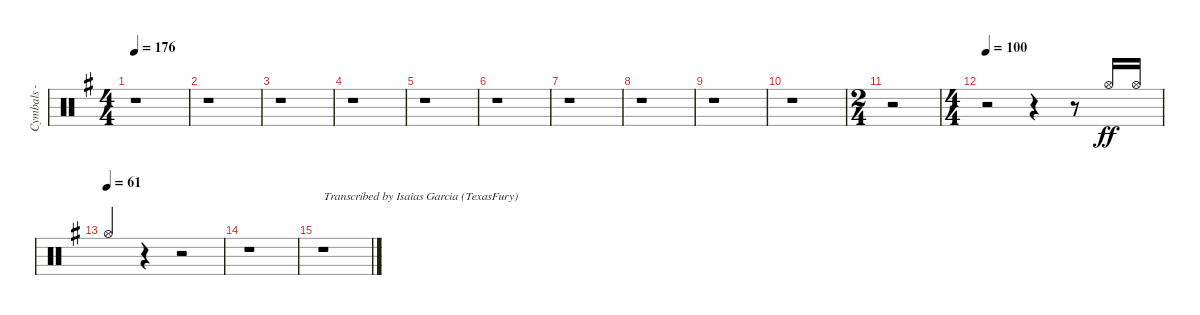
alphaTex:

\track ("Cymbals - hi-hat" "Cymbals - ") {instrument percussion}
\staff {score}
\articulation defaults
\ts (4 4)
\tempo 176
\clef neutral
\ks eminor
r.1{dy ff} |
r.1 |
r.1 |
r.1 |
r.1 |
r.1 |
r.1 |
r.1 |
r.1 |
\ks g
r.1 |
\ts (2 4)
r.2 |
\ts (4 4)
\tempo 100
r.2 r.4 r.8 "Hi-Hat (open)".16{beam Up} "Hi-Hat (open)".16{beam Up} |
\tempo (61)
"Hi-Hat (open)".4{beam Up} r.4 r.2 |
r.1 |
r.1{txt "Transcribed by Isaias Garcia (TexasFury)"}
